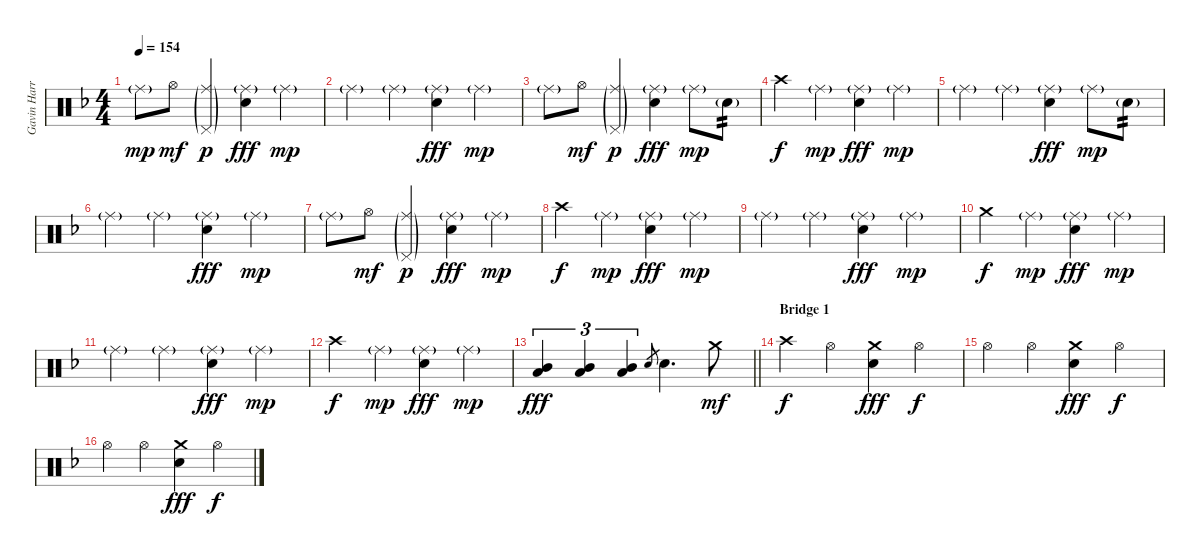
\track ("Gavin Harrison Drums" "Gavin Harr") {instrument percussion}
\staff {score}
\articulation defaults
\ts (4 4)
\tempo 154
\clef neutral
\ks dminor "Ride (middle)"{g}.8{dy mp} "Hi-Hat (open)".8{dy mf}
("Ride (middle)"{g} "Pedal Hi-Hat (hit)"{g}).4{dy p} ("Ride (middle)"{g} "Electric Snare (hit)").4{dy fff} "Ride (middle)"{g}.4{dy mp} |
"Ride (middle)"{g}.4 "Ride (middle)"{g}.4 ("Ride (middle)"{g} "Electric Snare (hit)").4{dy fff} "Ride (middle)"{g}.4{dy mp} |
"Ride (middle)"{g}.8 "Hi-Hat (open)".8{dy mf} ("Ride (middle)"{g} "Pedal Hi-Hat (hit)"{g}).4{dy p} ("Ride (middle)"{g} "Electric Snare (hit)").4{dy fff} "Ride (middle)"{g}.8{dy mp} "Electric Snare (hit)"{g}.8{tp 2} |
"Crash high (hit)".4{dy f} "Ride (middle)"{g}.4{dy mp} ("Ride (middle)"{g} "Electric Snare (hit)").4{dy fff} "Ride (middle)"{g}.4{dy mp} |
"Ride (middle)"{g}.4 "Ride (middle)"{g}.4 ("Ride (middle)"{g} "Electric Snare (hit)").4{dy fff} "Ride (middle)"{g}.8{dy mp} "Electric Snare (hit)"{g}.8{tp 2} |
"Ride (middle)"{g}.4 "Ride (middle)"{g}.4 ("Ride (middle)"{g} "Electric Snare (hit)").4{dy fff} "Ride (middle)"{g}.4{dy mp} |
"Ride (middle)"{g}.8 "Hi-Hat (open)".8{dy mf} ("Ride (middle)"{g} "Pedal Hi-Hat (hit)"{g}).4{dy p} ("Ride (middle)"{g} "Electric Snare (hit)").4{dy fff} "Ride (middle)"{g}.4{dy mp} |
"Crash high (hit)".4{dy f} "Ride (middle)"{g}.4{dy mp} ("Ride (middle)"{g} "Electric Snare (hit)").4{dy fff} "Ride (middle)"{g}.4{dy mp} |
"Ride (middle)"{g}.4 "Ride (middle)"{g}.4 ("Ride (middle)"{g} "Electric Snare (hit)").4{dy fff} "Ride (middle)"{g}.4{dy mp} |
"Crash medium (hit)".4{dy f} "Ride (middle)"{g}.4{dy mp} ("Ride (middle)"{g} "Electric Snare (hit)").4{dy fff} "Ride (middle)"{g}.4{dy mp} |
"Ride (middle)"{g}.4 "Ride (middle)"{g}.4 ("Ride (middle)"{g} "Electric Snare (hit)").4{dy fff} "Ride (middle)"{g}.4{dy mp} |
"Crash high (hit)".4{dy f} "Ride (middle)"{g}.4{dy mp} ("Ride (middle)"{g} "Electric Snare (hit)").4{dy fff} "Ride (middle)"{g}.4{dy mp} |
\barLineRight lightlight
("Mid Tom (hit)" "Low Tom (hit)").4{tu (3 2) dy fff} ("Mid Tom (hit)" "Low Tom (hit)").4{tu (3 2)} ("Mid Tom (hit)" "Low Tom (hit)").4{tu (3 2)} "Electric Snare (hit)".8{gr} "Electric Snare (hit)".4{d} "Crash medium (hit)".8{dy mf} |
\section ("" "Bridge 1")
"Crash high (hit)".4{dy f} "Hi-Hat (open)".4 ("Crash medium (hit)" "Electric Snare (hit)").4{dy fff} "Hi-Hat (open)".4{dy f} |
"Hi-Hat (open)".4 "Hi-Hat (open)".4 ("Crash medium (hit)" "Electric Snare (hit)").4{dy fff} "Hi-Hat (open)".4{dy f} |
"Hi-Hat (open)".4 "Hi-Hat (open)".4 ("Crash medium (hit)" "Electric Snare (hit)").4{dy fff} "Hi-Hat (open)".4{dy f}
